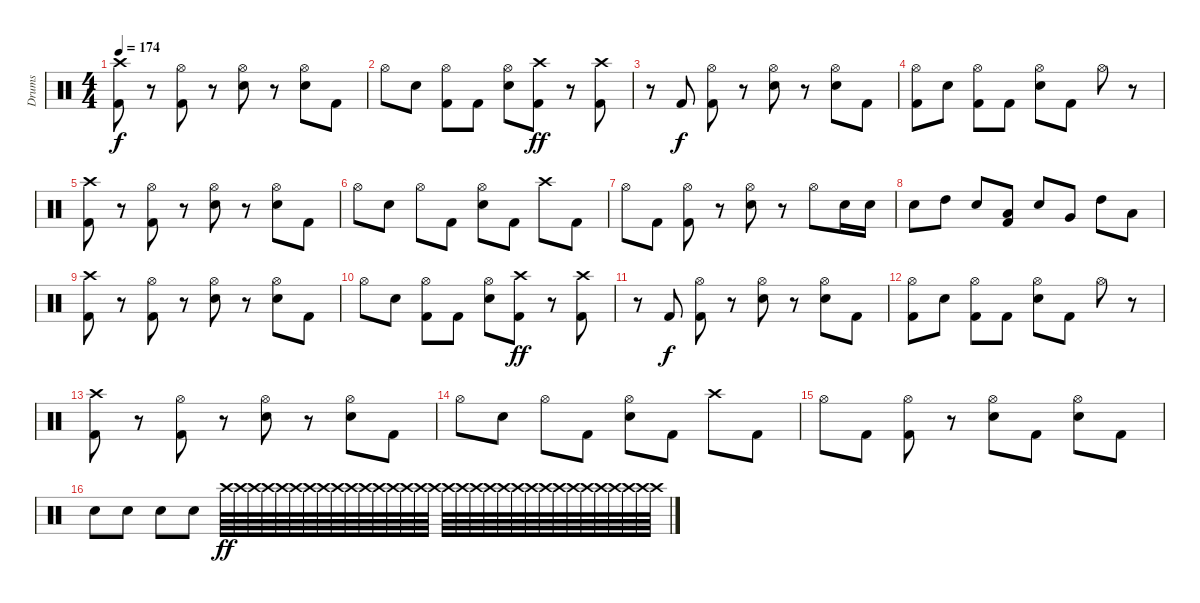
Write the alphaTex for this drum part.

\track ("Drums" "Drums") {instrument percussion}
\staff {score}
\articulation defaults
\ts (4 4)
\tempo 174
\clef neutral
\ks c
("Crash high (hit)" "Kick (hit) 2").8{dy f} r.8 ("Hi-Hat (open)" "Kick (hit) 2").8 r.8 ("Hi-Hat (open)" "Electric Snare (hit)").8 r.8 ("Hi-Hat (open)" "Electric Snare (hit)").8 "Kick (hit) 2".8 |
"Hi-Hat (open)".8 "Electric Snare (hit)".8 ("Hi-Hat (open)" "Kick (hit) 2").8 "Kick (hit) 2".8 ("Hi-Hat (open)" "Electric Snare (hit)").8 ("Crash high (hit)" "Kick (hit) 2").8{dy ff} r.8 ("Crash high (hit)" "Kick (hit) 2").8 |
r.8 "Kick (hit) 2".8{dy f} ("Hi-Hat (open)" "Kick (hit) 2").8 r.8 ("Hi-Hat (open)" "Electric Snare (hit)").8 r.8 ("Hi-Hat (open)" "Electric Snare (hit)").8 "Kick (hit) 2".8 |
("Hi-Hat (open)" "Kick (hit) 2").8 "Electric Snare (hit)".8 ("Hi-Hat (open)" "Kick (hit) 2").8 "Kick (hit) 2".8 ("Hi-Hat (open)" "Electric Snare (hit)").8 "Kick (hit) 2".8 "Hi-Hat (open)".8 r.8 |
("Crash high (hit)" "Kick (hit) 2").8 r.8 ("Hi-Hat (open)" "Kick (hit) 2").8 r.8 ("Hi-Hat (open)" "Electric Snare (hit)").8 r.8 ("Hi-Hat (open)" "Electric Snare (hit)").8 "Kick (hit) 2".8 |
"Hi-Hat (open)".8 "Electric Snare (hit)".8 "Hi-Hat (open)".8 "Kick (hit) 2".8 ("Hi-Hat (open)" "Electric Snare (hit)").8 "Kick (hit) 2".8 "Crash high (hit)".8 "Kick (hit) 2".8 |
"Hi-Hat (open)".8 "Kick (hit) 2".8 ("Hi-Hat (open)" "Kick (hit) 2").8 r.8 ("Hi-Hat (open)" "Electric Snare (hit)").8 r.8 "Hi-Hat (open)".8 "Electric Snare (hit)".16 "Electric Snare (hit)".16 |
"Electric Snare (hit)".8 "High Tom (hit)".8 "Electric Snare (hit)".8 ("Low Tom (hit)" "Kick (hit) 2").8 "Electric Snare (hit)".8 "Very Low Tom (hit)".8 "High Tom (hit)".8 "Low Tom (hit)".8 |
("Crash high (hit)" "Kick (hit) 2").8 r.8 ("Hi-Hat (open)" "Kick (hit) 2").8 r.8 ("Hi-Hat (open)" "Electric Snare (hit)").8 r.8 ("Hi-Hat (open)" "Electric Snare (hit)").8 "Kick (hit) 2".8 |
"Hi-Hat (open)".8 "Electric Snare (hit)".8 ("Hi-Hat (open)" "Kick (hit) 2").8 "Kick (hit) 2".8 ("Hi-Hat (open)" "Electric Snare (hit)").8 ("Crash high (hit)" "Kick (hit) 2").8{dy ff} r.8 ("Crash high (hit)" "Kick (hit) 2").8 |
r.8 "Kick (hit) 2".8{dy f} ("Hi-Hat (open)" "Kick (hit) 2").8 r.8 ("Hi-Hat (open)" "Electric Snare (hit)").8 r.8 ("Hi-Hat (open)" "Electric Snare (hit)").8 "Kick (hit) 2".8 |
("Hi-Hat (open)" "Kick (hit) 2").8 "Electric Snare (hit)".8 ("Hi-Hat (open)" "Kick (hit) 2").8 "Kick (hit) 2".8 ("Hi-Hat (open)" "Electric Snare (hit)").8 "Kick (hit) 2".8 "Hi-Hat (open)".8 r.8 |
("Crash high (hit)" "Kick (hit) 2").8 r.8 ("Hi-Hat (open)" "Kick (hit) 2").8 r.8 ("Hi-Hat (open)" "Electric Snare (hit)").8 r.8 ("Hi-Hat (open)" "Electric Snare (hit)").8 "Kick (hit) 2".8 |
"Hi-Hat (open)".8 "Electric Snare (hit)".8 "Hi-Hat (open)".8 "Kick (hit) 2".8 ("Hi-Hat (open)" "Electric Snare (hit)").8 "Kick (hit) 2".8 "Crash high (hit)".8 "Kick (hit) 2".8 |
"Hi-Hat (open)".8 "Kick (hit) 2".8 ("Hi-Hat (open)" "Kick (hit) 2").8 r.8 ("Hi-Hat (open)" "Electric Snare (hit)").8 "Kick (hit) 2".8 ("Hi-Hat (open)" "Electric Snare (hit)").8 "Kick (hit) 2".8 |
"Electric Snare (hit)".8 "Electric Snare (hit)".8 "Electric Snare (hit)".8 "Electric Snare (hit)".8 "Crash high (hit)".64{dy ff volume 1} "Crash high (hit)".64{volume 14} "Crash high (hit)".64 "Crash high (hit)".64 "Crash high (hit)".64 "Crash high (hit)".64 "Crash high (hit)".64 "Crash high (hit)".64 "Crash high (hit)".64 "Crash high (hit)".64 "Crash high (hit)".64 "Crash high (hit)".64 "Crash high (hit)".64 "Crash high (hit)".64 "Crash high (hit)".64 "Crash high (hit)".64 "Crash high (hit)".64 "Crash high (hit)".64 "Crash high (hit)".64 "Crash high (hit)".64 "Crash high (hit)".64 "Crash high (hit)".64 "Crash high (hit)".64 "Crash high (hit)".64 "Crash high (hit)".64 "Crash high (hit)".64 "Crash high (hit)".64 "Crash high (hit)".64 "Crash high (hit)".64 "Crash high (hit)".64 "Crash high (hit)".64 "Crash high (hit)".64
